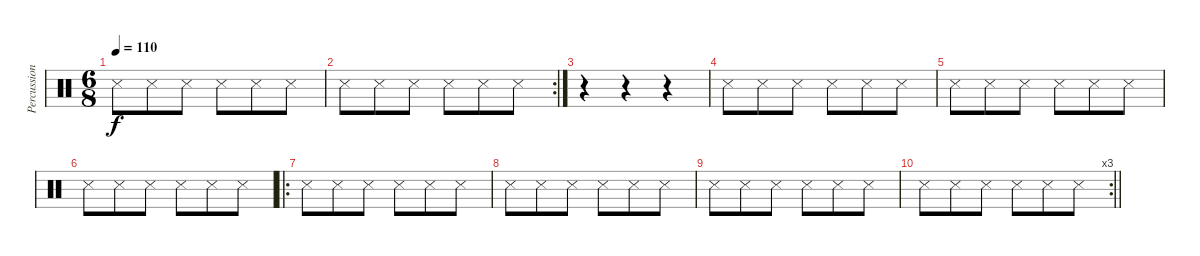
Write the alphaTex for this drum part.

\track ("Percussion" "Percussion") {instrument percussion}
\staff {score}
\articulation defaults
\ts (6 8)
\tempo 110
\clef neutral
\ks c "Snare (side stick) 3".8{dy f} "Snare (side stick) 3".8 "Snare (side stick) 3".8 "Snare (side stick) 3".8 "Snare (side stick) 3".8 "Snare (side stick) 3".8
|
\rc 2 "Snare (side stick) 3".8 "Snare (side stick) 3".8 "Snare (side stick) 3".8 "Snare (side stick) 3".8 "Snare (side stick) 3".8 "Snare (side stick) 3".8
|
r.4 r.4 r.4 |
"Snare (side stick) 3".8 "Snare (side stick) 3".8 "Snare (side stick) 3".8 "Snare (side stick) 3".8 "Snare (side stick) 3".8 "Snare (side stick) 3".8 |
"Snare (side stick) 3".8 "Snare (side stick) 3".8 "Snare (side stick) 3".8 "Snare (side stick) 3".8 "Snare (side stick) 3".8 "Snare (side stick) 3".8 |
"Snare (side stick) 3".8 "Snare (side stick) 3".8 "Snare (side stick) 3".8 "Snare (side stick) 3".8 "Snare (side stick) 3".8 "Snare (side stick) 3".8 |
\ro "Snare (side stick) 3".8 "Snare (side stick) 3".8 "Snare (side stick) 3".8 "Snare (side stick) 3".8 "Snare (side stick) 3".8 "Snare (side stick) 3".8
|
"Snare (side stick) 3".8 "Snare (side stick) 3".8 "Snare (side stick) 3".8 "Snare (side stick) 3".8 "Snare (side stick) 3".8 "Snare (side stick) 3".8 |
"Snare (side stick) 3".8 "Snare (side stick) 3".8 "Snare (side stick) 3".8 "Snare (side stick) 3".8 "Snare (side stick) 3".8 "Snare (side stick) 3".8 |
\rc 3
\barLineRight lightlight "Snare (side stick) 3".8 "Snare (side stick) 3".8 "Snare (side stick) 3".8 "Snare (side stick) 3".8 "Snare (side stick) 3".8 "Snare (side stick) 3".8
